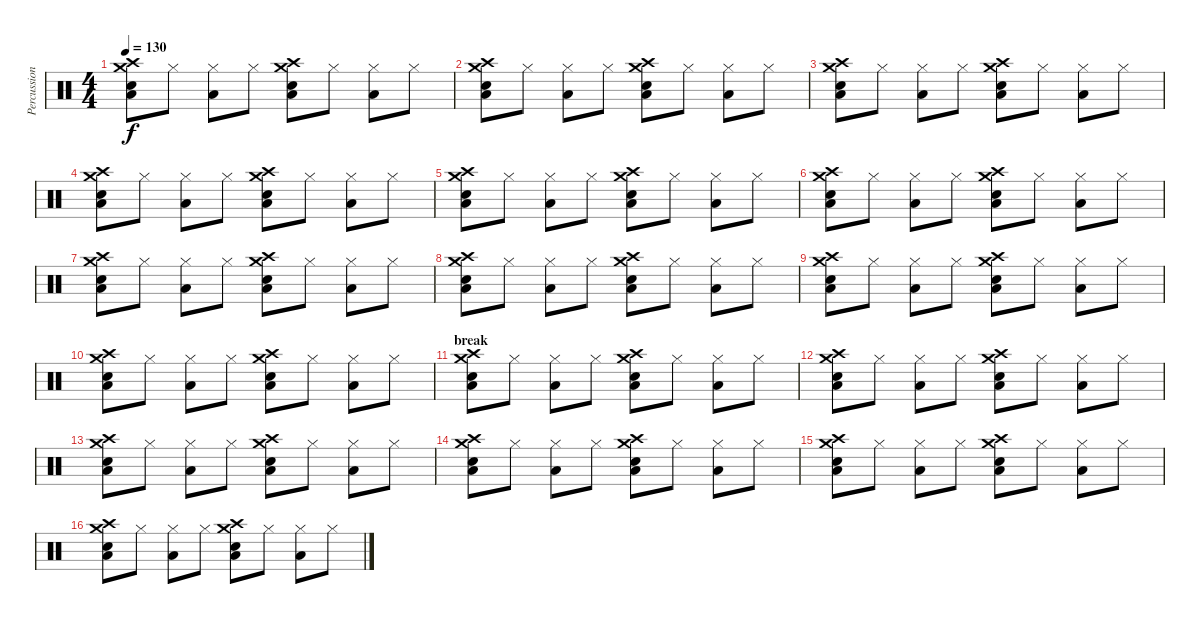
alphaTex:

\track ("Percussions" "Percussion") {instrument percussion}
\staff {score}
\articulation defaults
\ts (4 4)
\tempo 130
\clef neutral
\ks c
("Low Floor Tom (hit)" "Snare (hit) 2" "Crash high (hit)" "Crash medium (hit)").8{dy f} "Hi-Hat (closed)".8 ("Low Floor Tom (hit)" "Hi-Hat (closed)").8 "Hi-Hat (closed)".8 ("Low Floor Tom (hit)" "Snare (hit) 2" "Crash high (hit)" "Crash medium (hit)").8 "Hi-Hat (closed)".8 ("Low Floor Tom (hit)" "Hi-Hat (closed)").8 "Hi-Hat (closed)".8 |
("Low Floor Tom (hit)" "Snare (hit) 2" "Crash high (hit)" "Crash medium (hit)").8 "Hi-Hat (closed)".8 ("Low Floor Tom (hit)" "Hi-Hat (closed)").8 "Hi-Hat (closed)".8 ("Low Floor Tom (hit)" "Snare (hit) 2" "Crash high (hit)" "Crash medium (hit)").8 "Hi-Hat (closed)".8 ("Low Floor Tom (hit)" "Hi-Hat (closed)").8 "Hi-Hat (closed)".8 |
("Low Floor Tom (hit)" "Snare (hit) 2" "Crash high (hit)" "Crash medium (hit)").8 "Hi-Hat (closed)".8 ("Low Floor Tom (hit)" "Hi-Hat (closed)").8 "Hi-Hat (closed)".8 ("Low Floor Tom (hit)" "Snare (hit) 2" "Crash high (hit)" "Crash medium (hit)").8 "Hi-Hat (closed)".8 ("Low Floor Tom (hit)" "Hi-Hat (closed)").8 "Hi-Hat (closed)".8 |
("Low Floor Tom (hit)" "Snare (hit) 2" "Crash high (hit)" "Crash medium (hit)").8 "Hi-Hat (closed)".8 ("Low Floor Tom (hit)" "Hi-Hat (closed)").8 "Hi-Hat (closed)".8 ("Low Floor Tom (hit)" "Snare (hit) 2" "Crash high (hit)" "Crash medium (hit)").8 "Hi-Hat (closed)".8 ("Low Floor Tom (hit)" "Hi-Hat (closed)").8 "Hi-Hat (closed)".8 |
("Low Floor Tom (hit)" "Snare (hit) 2" "Crash high (hit)" "Crash medium (hit)").8 "Hi-Hat (closed)".8 ("Low Floor Tom (hit)" "Hi-Hat (closed)").8 "Hi-Hat (closed)".8 ("Low Floor Tom (hit)" "Snare (hit) 2" "Crash high (hit)" "Crash medium (hit)").8 "Hi-Hat (closed)".8 ("Low Floor Tom (hit)" "Hi-Hat (closed)").8 "Hi-Hat (closed)".8 |
("Low Floor Tom (hit)" "Snare (hit) 2" "Crash high (hit)" "Crash medium (hit)").8 "Hi-Hat (closed)".8 ("Low Floor Tom (hit)" "Hi-Hat (closed)").8 "Hi-Hat (closed)".8 ("Low Floor Tom (hit)" "Snare (hit) 2" "Crash high (hit)" "Crash medium (hit)").8 "Hi-Hat (closed)".8 ("Low Floor Tom (hit)" "Hi-Hat (closed)").8 "Hi-Hat (closed)".8 |
("Low Floor Tom (hit)" "Snare (hit) 2" "Crash high (hit)" "Crash medium (hit)").8 "Hi-Hat (closed)".8 ("Low Floor Tom (hit)" "Hi-Hat (closed)").8 "Hi-Hat (closed)".8 ("Low Floor Tom (hit)" "Snare (hit) 2" "Crash high (hit)" "Crash medium (hit)").8 "Hi-Hat (closed)".8 ("Low Floor Tom (hit)" "Hi-Hat (closed)").8 "Hi-Hat (closed)".8 |
("Low Floor Tom (hit)" "Snare (hit) 2" "Crash high (hit)" "Crash medium (hit)").8 "Hi-Hat (closed)".8 ("Low Floor Tom (hit)" "Hi-Hat (closed)").8 "Hi-Hat (closed)".8 ("Low Floor Tom (hit)" "Snare (hit) 2" "Crash high (hit)" "Crash medium (hit)").8 "Hi-Hat (closed)".8 ("Low Floor Tom (hit)" "Hi-Hat (closed)").8 "Hi-Hat (closed)".8 |
("Low Floor Tom (hit)" "Snare (hit) 2" "Crash high (hit)" "Crash medium (hit)").8 "Hi-Hat (closed)".8 ("Low Floor Tom (hit)" "Hi-Hat (closed)").8 "Hi-Hat (closed)".8 ("Low Floor Tom (hit)" "Snare (hit) 2" "Crash high (hit)" "Crash medium (hit)").8 "Hi-Hat (closed)".8 ("Low Floor Tom (hit)" "Hi-Hat (closed)").8 "Hi-Hat (closed)".8 |
("Low Floor Tom (hit)" "Snare (hit) 2" "Crash high (hit)" "Crash medium (hit)").8 "Hi-Hat (closed)".8 ("Low Floor Tom (hit)" "Hi-Hat (closed)").8 "Hi-Hat (closed)".8 ("Low Floor Tom (hit)" "Snare (hit) 2" "Crash high (hit)" "Crash medium (hit)").8 "Hi-Hat (closed)".8 ("Low Floor Tom (hit)" "Hi-Hat (closed)").8 "Hi-Hat (closed)".8 |
\section ("" "break")
("Low Floor Tom (hit)" "Snare (hit) 2" "Crash high (hit)" "Crash medium (hit)").8 "Hi-Hat (closed)".8 ("Low Floor Tom (hit)" "Hi-Hat (closed)").8 "Hi-Hat (closed)".8 ("Low Floor Tom (hit)" "Snare (hit) 2" "Crash high (hit)" "Crash medium (hit)").8 "Hi-Hat (closed)".8 ("Low Floor Tom (hit)" "Hi-Hat (closed)").8 "Hi-Hat (closed)".8 |
("Low Floor Tom (hit)" "Snare (hit) 2" "Crash high (hit)" "Crash medium (hit)").8 "Hi-Hat (closed)".8 ("Low Floor Tom (hit)" "Hi-Hat (closed)").8 "Hi-Hat (closed)".8 ("Low Floor Tom (hit)" "Snare (hit) 2" "Crash high (hit)" "Crash medium (hit)").8 "Hi-Hat (closed)".8 ("Low Floor Tom (hit)" "Hi-Hat (closed)").8 "Hi-Hat (closed)".8 |
("Low Floor Tom (hit)" "Snare (hit) 2" "Crash high (hit)" "Crash medium (hit)").8 "Hi-Hat (closed)".8 ("Low Floor Tom (hit)" "Hi-Hat (closed)").8 "Hi-Hat (closed)".8 ("Low Floor Tom (hit)" "Snare (hit) 2" "Crash high (hit)" "Crash medium (hit)").8 "Hi-Hat (closed)".8 ("Low Floor Tom (hit)" "Hi-Hat (closed)").8 "Hi-Hat (closed)".8 |
("Low Floor Tom (hit)" "Snare (hit) 2" "Crash high (hit)" "Crash medium (hit)").8 "Hi-Hat (closed)".8 ("Low Floor Tom (hit)" "Hi-Hat (closed)").8 "Hi-Hat (closed)".8 ("Low Floor Tom (hit)" "Snare (hit) 2" "Crash high (hit)" "Crash medium (hit)").8 "Hi-Hat (closed)".8 ("Low Floor Tom (hit)" "Hi-Hat (closed)").8 "Hi-Hat (closed)".8 |
("Low Floor Tom (hit)" "Snare (hit) 2" "Crash high (hit)" "Crash medium (hit)").8 "Hi-Hat (closed)".8 ("Low Floor Tom (hit)" "Hi-Hat (closed)").8 "Hi-Hat (closed)".8 ("Low Floor Tom (hit)" "Snare (hit) 2" "Crash high (hit)" "Crash medium (hit)").8 "Hi-Hat (closed)".8 ("Low Floor Tom (hit)" "Hi-Hat (closed)").8 "Hi-Hat (closed)".8 |
("Low Floor Tom (hit)" "Snare (hit) 2" "Crash high (hit)" "Crash medium (hit)").8 "Hi-Hat (closed)".8 ("Low Floor Tom (hit)" "Hi-Hat (closed)").8 "Hi-Hat (closed)".8 ("Low Floor Tom (hit)" "Snare (hit) 2" "Crash high (hit)" "Crash medium (hit)").8 "Hi-Hat (closed)".8 ("Low Floor Tom (hit)" "Hi-Hat (closed)").8 "Hi-Hat (closed)".8
